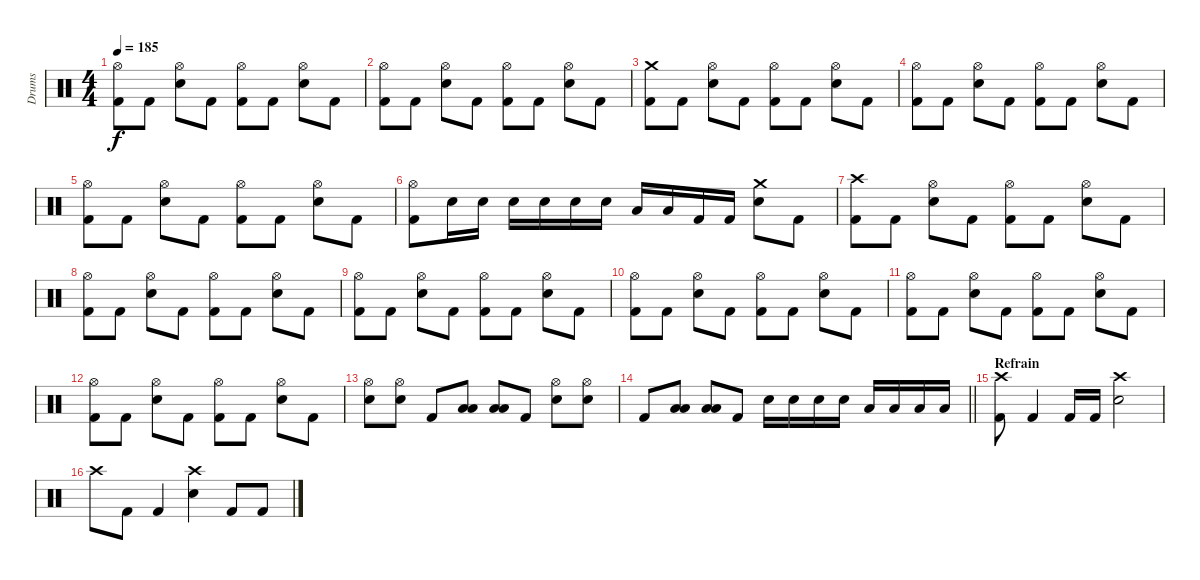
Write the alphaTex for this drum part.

\track ("Drums" "Drums") {instrument percussion}
\staff {score}
\articulation defaults
\ts (4 4)
\tempo 185
\clef neutral
\ks c
("Hi-Hat (open)" "Kick (hit) 2").8{dy f} "Kick (hit) 2".8 ("Hi-Hat (open)" "Electric Snare (hit)").8 "Kick (hit) 2".8 ("Hi-Hat (open)" "Kick (hit) 2").8 "Kick (hit) 2".8 ("Hi-Hat (open)" "Electric Snare (hit)").8 "Kick (hit) 2".8 |
("Hi-Hat (open)" "Kick (hit) 2").8 "Kick (hit) 2".8 ("Hi-Hat (open)" "Electric Snare (hit)").8 "Kick (hit) 2".8 ("Hi-Hat (open)" "Kick (hit) 2").8 "Kick (hit) 2".8 ("Hi-Hat (open)" "Electric Snare (hit)").8 "Kick (hit) 2".8 |
("Crash medium (hit)" "Kick (hit) 2").8 "Kick (hit) 2".8 ("Hi-Hat (open)" "Electric Snare (hit)").8 "Kick (hit) 2".8 ("Hi-Hat (open)" "Kick (hit) 2").8 "Kick (hit) 2".8 ("Hi-Hat (open)" "Electric Snare (hit)").8 "Kick (hit) 2".8 |
("Hi-Hat (open)" "Kick (hit) 2").8 "Kick (hit) 2".8 ("Hi-Hat (open)" "Electric Snare (hit)").8 "Kick (hit) 2".8 ("Hi-Hat (open)" "Kick (hit) 2").8 "Kick (hit) 2".8 ("Hi-Hat (open)" "Electric Snare (hit)").8 "Kick (hit) 2".8 |
("Hi-Hat (open)" "Kick (hit) 2").8 "Kick (hit) 2".8 ("Hi-Hat (open)" "Electric Snare (hit)").8 "Kick (hit) 2".8 ("Hi-Hat (open)" "Kick (hit) 2").8 "Kick (hit) 2".8 ("Hi-Hat (open)" "Electric Snare (hit)").8 "Kick (hit) 2".8 |
("Hi-Hat (open)" "Kick (hit) 2").8 "Electric Snare (hit)".16 "Electric Snare (hit)".16 "Electric Snare (hit)".16 "Electric Snare (hit)".16 "Electric Snare (hit)".16 "Electric Snare (hit)".16 "Low Tom (hit)".16 "Low Tom (hit)".16 "Kick (hit) 2".16 "Kick (hit) 2".16 ("Crash medium (hit)" "Electric Snare (hit)").8 "Kick (hit) 2".8 |
("Crash high (hit)" "Kick (hit) 2").8 "Kick (hit) 2".8 ("Hi-Hat (open)" "Electric Snare (hit)").8 "Kick (hit) 2".8 ("Hi-Hat (open)" "Kick (hit) 2").8 "Kick (hit) 2".8 ("Hi-Hat (open)" "Electric Snare (hit)").8 "Kick (hit) 2".8 |
("Hi-Hat (open)" "Kick (hit) 2").8 "Kick (hit) 2".8 ("Hi-Hat (open)" "Electric Snare (hit)").8 "Kick (hit) 2".8 ("Hi-Hat (open)" "Kick (hit) 2").8 "Kick (hit) 2".8 ("Hi-Hat (open)" "Electric Snare (hit)").8 "Kick (hit) 2".8 |
("Hi-Hat (open)" "Kick (hit) 2").8 "Kick (hit) 2".8 ("Hi-Hat (open)" "Electric Snare (hit)").8 "Kick (hit) 2".8 ("Hi-Hat (open)" "Kick (hit) 2").8 "Kick (hit) 2".8 ("Hi-Hat (open)" "Electric Snare (hit)").8 "Kick (hit) 2".8 |
("Hi-Hat (open)" "Kick (hit) 2").8 "Kick (hit) 2".8 ("Hi-Hat (open)" "Electric Snare (hit)").8 "Kick (hit) 2".8 ("Hi-Hat (open)" "Kick (hit) 2").8 "Kick (hit) 2".8 ("Hi-Hat (open)" "Electric Snare (hit)").8 "Kick (hit) 2".8 |
("Hi-Hat (open)" "Kick (hit) 2").8 "Kick (hit) 2".8 ("Hi-Hat (open)" "Electric Snare (hit)").8 "Kick (hit) 2".8 ("Hi-Hat (open)" "Kick (hit) 2").8 "Kick (hit) 2".8 ("Hi-Hat (open)" "Electric Snare (hit)").8 "Kick (hit) 2".8 |
("Hi-Hat (open)" "Kick (hit) 2").8 "Kick (hit) 2".8 ("Hi-Hat (open)" "Electric Snare (hit)").8 "Kick (hit) 2".8 ("Hi-Hat (open)" "Kick (hit) 2").8 "Kick (hit) 2".8 ("Hi-Hat (open)" "Electric Snare (hit)").8 "Kick (hit) 2".8 |
("Hi-Hat (open)" "Electric Snare (hit)").8 ("Hi-Hat (open)" "Electric Snare (hit)").8 "Kick (hit) 2".8 ("Low Tom (hit)" "Low Floor Tom (hit)").8 ("Low Tom (hit)" "Low Floor Tom (hit)").8 "Kick (hit) 2".8 ("Hi-Hat (open)" "Electric Snare (hit)").8 ("Hi-Hat (open)" "Electric Snare (hit)").8 |
\barLineRight lightlight "Kick (hit) 2".8
("Low Tom (hit)" "Low Floor Tom (hit)").8 ("Low Tom (hit)" "Low Floor Tom (hit)").8 "Kick (hit) 2".8 "Electric Snare (hit)".16 "Electric Snare (hit)".16 "Electric Snare (hit)".16 "Electric Snare (hit)".16 "Low Tom (hit)".16 "Low Tom (hit)".16 "Low Floor Tom (hit)".16 "Low Floor Tom (hit)".16 |
\section ("" "Refrain")
("Crash high (hit)" "Kick (hit) 2").8 "Kick (hit) 2".4 "Kick (hit) 2".16 "Kick (hit) 2".16 ("Crash high (hit)" "Electric Snare (hit)").2 |
"Crash high (hit)".8 "Kick (hit) 2".8 "Kick (hit) 2".4 ("Crash high (hit)" "Electric Snare (hit)").4 "Kick (hit) 2".8 "Kick (hit) 2".8
